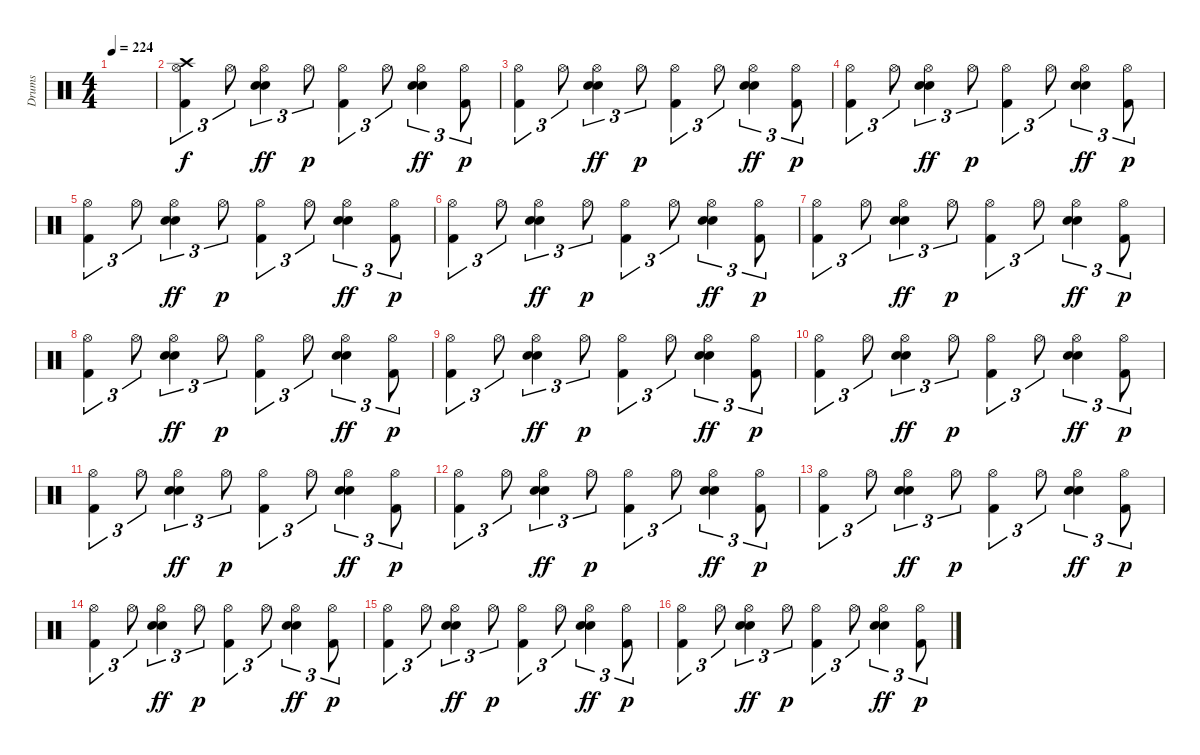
\track ("Drums" "Drums") {instrument percussion}
\staff {score}
\articulation defaults
\ts (4 4)
\tempo 224
\clef neutral
\ks c
|
("Crash high (hit)" "Hi-Hat (open)" "Kick (hit) 2").4{tu (3 2)} "Hi-Hat (open)".8{tu (3 2)} ("Hand Clap (hit)" "Hi-Hat (open)" "Snare (hit) 2").4{tu (3 2) dy ff} "Hi-Hat (open)".8{tu (3 2) dy p} ("Hi-Hat (open)" "Kick (hit) 2").4{tu (3 2)} "Hi-Hat (open)".8{tu (3 2)} ("Hand Clap (hit)" "Hi-Hat (open)" "Snare (hit) 2").4{tu (3 2) dy ff} ("Hi-Hat (open)" "Kick (hit) 2").8{tu (3 2) dy p} |
("Hi-Hat (open)" "Kick (hit) 2").4{tu (3 2)} "Hi-Hat (open)".8{tu (3 2)} ("Hand Clap (hit)" "Hi-Hat (open)" "Snare (hit) 2").4{tu (3 2) dy ff} "Hi-Hat (open)".8{tu (3 2) dy p} ("Hi-Hat (open)" "Kick (hit) 2").4{tu (3 2)} "Hi-Hat (open)".8{tu (3 2)} ("Hand Clap (hit)" "Hi-Hat (open)" "Snare (hit) 2").4{tu (3 2) dy ff} ("Hi-Hat (open)" "Kick (hit) 2").8{tu (3 2) dy p} |
("Hi-Hat (open)" "Kick (hit) 2").4{tu (3 2)} "Hi-Hat (open)".8{tu (3 2)} ("Hand Clap (hit)" "Hi-Hat (open)" "Snare (hit) 2").4{tu (3 2) dy ff} "Hi-Hat (open)".8{tu (3 2) dy p} ("Hi-Hat (open)" "Kick (hit) 2").4{tu (3 2)} "Hi-Hat (open)".8{tu (3 2)} ("Hand Clap (hit)" "Hi-Hat (open)" "Snare (hit) 2").4{tu (3 2) dy ff} ("Hi-Hat (open)" "Kick (hit) 2").8{tu (3 2) dy p} |
("Hi-Hat (open)" "Kick (hit) 2").4{tu (3 2)} "Hi-Hat (open)".8{tu (3 2)} ("Hand Clap (hit)" "Hi-Hat (open)" "Snare (hit) 2").4{tu (3 2) dy ff} "Hi-Hat (open)".8{tu (3 2) dy p} ("Hi-Hat (open)" "Kick (hit) 2").4{tu (3 2)} "Hi-Hat (open)".8{tu (3 2)} ("Hand Clap (hit)" "Hi-Hat (open)" "Snare (hit) 2").4{tu (3 2) dy ff} ("Hi-Hat (open)" "Kick (hit) 2").8{tu (3 2) dy p} |
("Hi-Hat (open)" "Kick (hit) 2").4{tu (3 2)} "Hi-Hat (open)".8{tu (3 2)} ("Hand Clap (hit)" "Hi-Hat (open)" "Snare (hit) 2").4{tu (3 2) dy ff} "Hi-Hat (open)".8{tu (3 2) dy p} ("Hi-Hat (open)" "Kick (hit) 2").4{tu (3 2)} "Hi-Hat (open)".8{tu (3 2)} ("Hand Clap (hit)" "Hi-Hat (open)" "Snare (hit) 2").4{tu (3 2) dy ff} ("Hi-Hat (open)" "Kick (hit) 2").8{tu (3 2) dy p} |
("Hi-Hat (open)" "Kick (hit) 2").4{tu (3 2)} "Hi-Hat (open)".8{tu (3 2)} ("Hand Clap (hit)" "Hi-Hat (open)" "Snare (hit) 2").4{tu (3 2) dy ff} "Hi-Hat (open)".8{tu (3 2) dy p} ("Hi-Hat (open)" "Kick (hit) 2").4{tu (3 2)} "Hi-Hat (open)".8{tu (3 2)} ("Hand Clap (hit)" "Hi-Hat (open)" "Snare (hit) 2").4{tu (3 2) dy ff} ("Hi-Hat (open)" "Kick (hit) 2").8{tu (3 2) dy p} |
("Hi-Hat (open)" "Kick (hit) 2").4{tu (3 2)} "Hi-Hat (open)".8{tu (3 2)} ("Hand Clap (hit)" "Hi-Hat (open)" "Snare (hit) 2").4{tu (3 2) dy ff} "Hi-Hat (open)".8{tu (3 2) dy p} ("Hi-Hat (open)" "Kick (hit) 2").4{tu (3 2)} "Hi-Hat (open)".8{tu (3 2)} ("Hand Clap (hit)" "Hi-Hat (open)" "Snare (hit) 2").4{tu (3 2) dy ff} ("Hi-Hat (open)" "Kick (hit) 2").8{tu (3 2) dy p} |
("Hi-Hat (open)" "Kick (hit) 2").4{tu (3 2)} "Hi-Hat (open)".8{tu (3 2)} ("Hand Clap (hit)" "Hi-Hat (open)" "Snare (hit) 2").4{tu (3 2) dy ff} "Hi-Hat (open)".8{tu (3 2) dy p} ("Hi-Hat (open)" "Kick (hit) 2").4{tu (3 2)} "Hi-Hat (open)".8{tu (3 2)} ("Hand Clap (hit)" "Hi-Hat (open)" "Snare (hit) 2").4{tu (3 2) dy ff} ("Hi-Hat (open)" "Kick (hit) 2").8{tu (3 2) dy p} |
("Hi-Hat (open)" "Kick (hit) 2").4{tu (3 2)} "Hi-Hat (open)".8{tu (3 2)} ("Hand Clap (hit)" "Hi-Hat (open)" "Snare (hit) 2").4{tu (3 2) dy ff} "Hi-Hat (open)".8{tu (3 2) dy p} ("Hi-Hat (open)" "Kick (hit) 2").4{tu (3 2)} "Hi-Hat (open)".8{tu (3 2)} ("Hand Clap (hit)" "Hi-Hat (open)" "Snare (hit) 2").4{tu (3 2) dy ff} ("Hi-Hat (open)" "Kick (hit) 2").8{tu (3 2) dy p} |
("Hi-Hat (open)" "Kick (hit) 2").4{tu (3 2)} "Hi-Hat (open)".8{tu (3 2)} ("Hand Clap (hit)" "Hi-Hat (open)" "Snare (hit) 2").4{tu (3 2) dy ff} "Hi-Hat (open)".8{tu (3 2) dy p} ("Hi-Hat (open)" "Kick (hit) 2").4{tu (3 2)} "Hi-Hat (open)".8{tu (3 2)} ("Hand Clap (hit)" "Hi-Hat (open)" "Snare (hit) 2").4{tu (3 2) dy ff} ("Hi-Hat (open)" "Kick (hit) 2").8{tu (3 2) dy p} |
("Hi-Hat (open)" "Kick (hit) 2").4{tu (3 2)} "Hi-Hat (open)".8{tu (3 2)} ("Hand Clap (hit)" "Hi-Hat (open)" "Snare (hit) 2").4{tu (3 2) dy ff} "Hi-Hat (open)".8{tu (3 2) dy p} ("Hi-Hat (open)" "Kick (hit) 2").4{tu (3 2)} "Hi-Hat (open)".8{tu (3 2)} ("Hand Clap (hit)" "Hi-Hat (open)" "Snare (hit) 2").4{tu (3 2) dy ff} ("Hi-Hat (open)" "Kick (hit) 2").8{tu (3 2) dy p} |
("Hi-Hat (open)" "Kick (hit) 2").4{tu (3 2)} "Hi-Hat (open)".8{tu (3 2)} ("Hand Clap (hit)" "Hi-Hat (open)" "Snare (hit) 2").4{tu (3 2) dy ff} "Hi-Hat (open)".8{tu (3 2) dy p} ("Hi-Hat (open)" "Kick (hit) 2").4{tu (3 2)} "Hi-Hat (open)".8{tu (3 2)} ("Hand Clap (hit)" "Hi-Hat (open)" "Snare (hit) 2").4{tu (3 2) dy ff} ("Hi-Hat (open)" "Kick (hit) 2").8{tu (3 2) dy p} |
("Hi-Hat (open)" "Kick (hit) 2").4{tu (3 2)} "Hi-Hat (open)".8{tu (3 2)} ("Hand Clap (hit)" "Hi-Hat (open)" "Snare (hit) 2").4{tu (3 2) dy ff} "Hi-Hat (open)".8{tu (3 2) dy p} ("Hi-Hat (open)" "Kick (hit) 2").4{tu (3 2)} "Hi-Hat (open)".8{tu (3 2)} ("Hand Clap (hit)" "Hi-Hat (open)" "Snare (hit) 2").4{tu (3 2) dy ff} ("Hi-Hat (open)" "Kick (hit) 2").8{tu (3 2) dy p} |
("Hi-Hat (open)" "Kick (hit) 2").4{tu (3 2)} "Hi-Hat (open)".8{tu (3 2)} ("Hand Clap (hit)" "Hi-Hat (open)" "Snare (hit) 2").4{tu (3 2) dy ff} "Hi-Hat (open)".8{tu (3 2) dy p} ("Hi-Hat (open)" "Kick (hit) 2").4{tu (3 2)} "Hi-Hat (open)".8{tu (3 2)} ("Hand Clap (hit)" "Hi-Hat (open)" "Snare (hit) 2").4{tu (3 2) dy ff} ("Hi-Hat (open)" "Kick (hit) 2").8{tu (3 2) dy p} |
("Hi-Hat (open)" "Kick (hit) 2").4{tu (3 2)} "Hi-Hat (open)".8{tu (3 2)} ("Hand Clap (hit)" "Hi-Hat (open)" "Snare (hit) 2").4{tu (3 2) dy ff} "Hi-Hat (open)".8{tu (3 2) dy p} ("Hi-Hat (open)" "Kick (hit) 2").4{tu (3 2)} "Hi-Hat (open)".8{tu (3 2)} ("Hand Clap (hit)" "Hi-Hat (open)" "Snare (hit) 2").4{tu (3 2) dy ff} ("Hi-Hat (open)" "Kick (hit) 2").8{tu (3 2) dy p}
